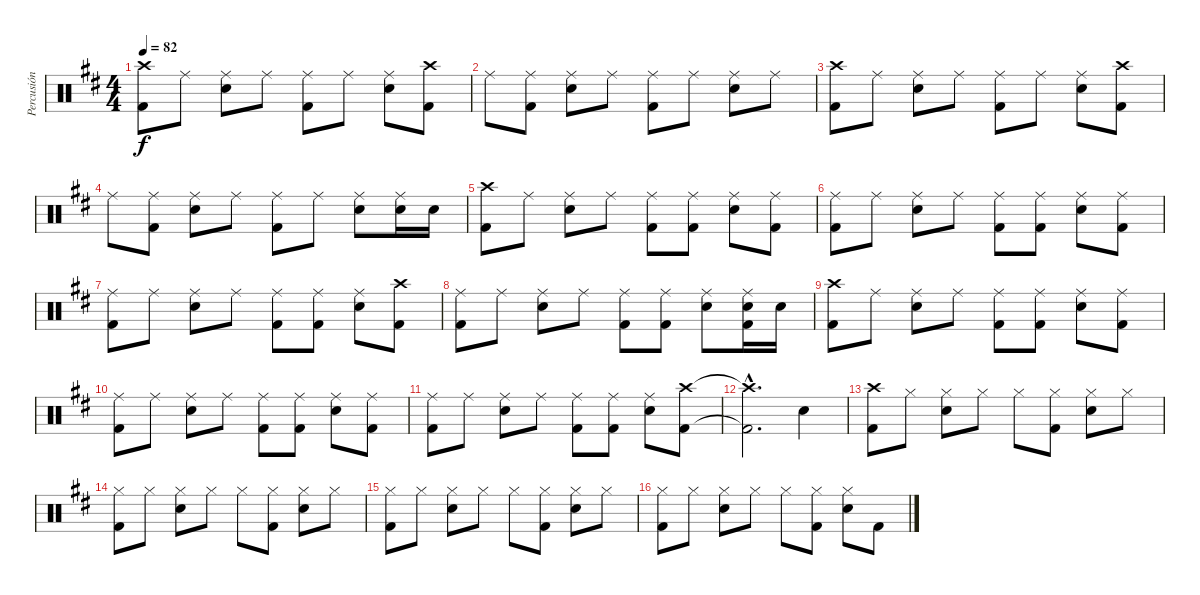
\track ("Percusión" "Percusión") {instrument percussion}
\staff {score}
\articulation defaults
\ts (4 4)
\tempo 82
\clef neutral
\ks d
("Crash high (hit)" "Kick (hit) 2").8{dy f} "Ride (middle)".8 ("Ride (middle)" "Snare (hit) 2").8 "Ride (middle)".8 ("Ride (middle)" "Kick (hit) 2").8 "Ride (middle)".8 ("Ride (middle)" "Snare (hit) 2").8 ("Crash high (hit)" "Kick (hit) 2").8 |
"Ride (middle)".8 ("Ride (middle)" "Kick (hit) 2").8 ("Ride (middle)" "Snare (hit) 2").8 "Ride (middle)".8 ("Ride (middle)" "Kick (hit) 2").8 "Ride (middle)".8 ("Ride (middle)" "Snare (hit) 2").8 "Ride (middle)".8 |
("Crash high (hit)" "Kick (hit) 2").8 "Ride (middle)".8 ("Ride (middle)" "Snare (hit) 2").8 "Ride (middle)".8 ("Ride (middle)" "Kick (hit) 2").8 "Ride (middle)".8 ("Ride (middle)" "Snare (hit) 2").8 ("Crash high (hit)" "Kick (hit) 2").8 |
"Ride (middle)".8 ("Ride (middle)" "Kick (hit) 2").8 ("Ride (middle)" "Snare (hit) 2").8 "Ride (middle)".8 ("Ride (middle)" "Kick (hit) 2").8 "Ride (middle)".8 ("Ride (middle)" "Snare (hit) 2").8 ("Ride (middle)" "Snare (hit) 2").16 "Snare (hit) 2".16 |
("Crash high (hit)" "Kick (hit) 2").8 "Ride (middle)".8 ("Ride (middle)" "Snare (hit) 2").8 "Ride (middle)".8 ("Ride (middle)" "Kick (hit) 2").8 ("Ride (middle)" "Kick (hit) 2").8 ("Ride (middle)" "Snare (hit) 2").8 ("Ride (middle)" "Kick (hit) 2").8 |
("Ride (middle)" "Kick (hit) 2").8 "Ride (middle)".8 ("Ride (middle)" "Snare (hit) 2").8 "Ride (middle)".8 ("Ride (middle)" "Kick (hit) 2").8 ("Ride (middle)" "Kick (hit) 2").8 ("Ride (middle)" "Snare (hit) 2").8 ("Ride (middle)" "Kick (hit) 2").8 |
("Ride (middle)" "Kick (hit) 2").8 "Ride (middle)".8 ("Ride (middle)" "Snare (hit) 2").8 "Ride (middle)".8 ("Ride (middle)" "Kick (hit) 2").8 ("Ride (middle)" "Kick (hit) 2").8 ("Ride (middle)" "Snare (hit) 2").8 ("Crash high (hit)" "Kick (hit) 2").8 |
("Ride (middle)" "Kick (hit) 2").8 "Ride (middle)".8 ("Ride (middle)" "Snare (hit) 2").8 "Ride (middle)".8 ("Ride (middle)" "Kick (hit) 2").8 ("Ride (middle)" "Kick (hit) 2").8 ("Ride (middle)" "Snare (hit) 2").8 ("Ride (middle)" "Snare (hit) 2" "Kick (hit) 2").16 "Snare (hit) 2".16 |
("Crash high (hit)" "Kick (hit) 2").8 "Ride (middle)".8 ("Ride (middle)" "Snare (hit) 2").8 "Ride (middle)".8 ("Ride (middle)" "Kick (hit) 2").8 ("Ride (middle)" "Kick (hit) 2").8 ("Ride (middle)" "Snare (hit) 2").8 ("Ride (middle)" "Kick (hit) 2").8 |
("Ride (middle)" "Kick (hit) 2").8 "Ride (middle)".8 ("Ride (middle)" "Snare (hit) 2").8 "Ride (middle)".8 ("Ride (middle)" "Kick (hit) 2").8 ("Ride (middle)" "Kick (hit) 2").8 ("Ride (middle)" "Snare (hit) 2").8 ("Ride (middle)" "Kick (hit) 2").8 |
("Ride (middle)" "Kick (hit) 2").8 "Ride (middle)".8 ("Ride (middle)" "Snare (hit) 2").8 "Ride (middle)".8 ("Ride (middle)" "Kick (hit) 2").8 ("Ride (middle)" "Kick (hit) 2").8 ("Ride (middle)" "Snare (hit) 2").8 ("Crash high (hit)" "Kick (hit) 2").8 |
("Crash high (hit)"{hac t} "Kick (hit) 2"{hac t}).2{d} "Snare (hit) 2".4 |
("Crash high (hit)" "Kick (hit) 2").8 "Hi-Hat (closed)".8 ("Hi-Hat (closed)" "Snare (hit) 2").8 "Hi-Hat (closed)".8 "Hi-Hat (closed)".8 ("Hi-Hat (closed)" "Kick (hit) 2").8 ("Hi-Hat (closed)" "Snare (hit) 2").8 "Hi-Hat (closed)".8 |
("Hi-Hat (closed)" "Kick (hit) 2").8 "Hi-Hat (closed)".8 ("Hi-Hat (closed)" "Snare (hit) 2").8 "Hi-Hat (closed)".8 "Hi-Hat (closed)".8 ("Hi-Hat (closed)" "Kick (hit) 2").8 ("Hi-Hat (closed)" "Snare (hit) 2").8 "Hi-Hat (closed)".8 |
("Hi-Hat (closed)" "Kick (hit) 2").8 "Hi-Hat (closed)".8 ("Hi-Hat (closed)" "Snare (hit) 2").8 "Hi-Hat (closed)".8 "Hi-Hat (closed)".8 ("Hi-Hat (closed)" "Kick (hit) 2").8 ("Hi-Hat (closed)" "Snare (hit) 2").8 "Hi-Hat (closed)".8 |
("Hi-Hat (closed)" "Kick (hit) 2").8 "Hi-Hat (closed)".8 ("Hi-Hat (closed)" "Snare (hit) 2").8 "Hi-Hat (closed)".8 "Hi-Hat (closed)".8 ("Hi-Hat (closed)" "Kick (hit) 2").8 ("Hi-Hat (closed)" "Snare (hit) 2").8 "Kick (hit) 2".8
